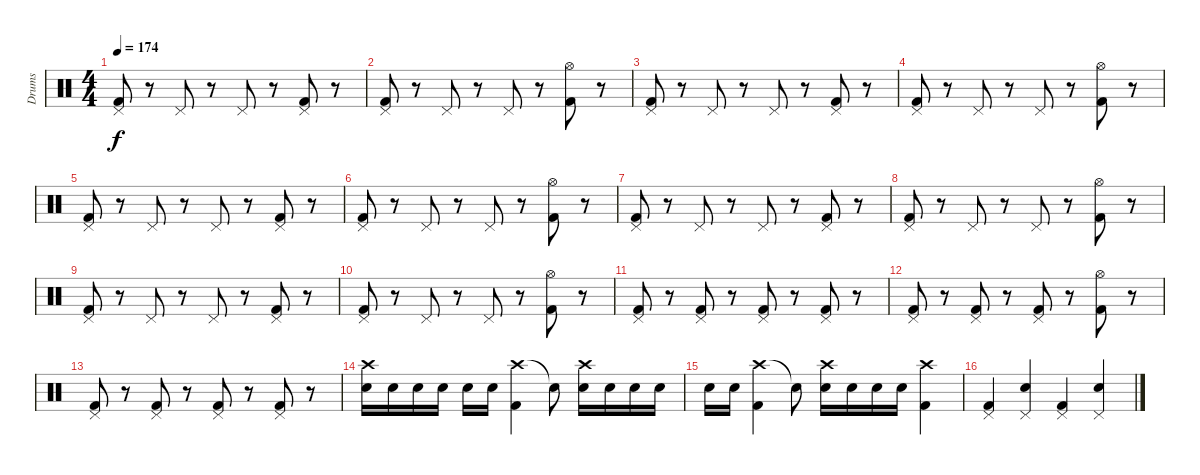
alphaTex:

\track ("Drums" "Drums") {instrument percussion}
\staff {score}
\articulation defaults
\ts (4 4)
\tempo 174
\clef neutral
\ks c
("Pedal Hi-Hat (hit)" "Kick (hit) 2").8{dy f} r.8 "Pedal Hi-Hat (hit)".8 r.8 "Pedal Hi-Hat (hit)".8 r.8 ("Pedal Hi-Hat (hit)" "Kick (hit) 2").8 r.8 |
("Pedal Hi-Hat (hit)" "Kick (hit) 2").8 r.8 "Pedal Hi-Hat (hit)".8 r.8 "Pedal Hi-Hat (hit)".8 r.8 ("Hi-Hat (open)" "Kick (hit) 2").8 r.8 |
("Pedal Hi-Hat (hit)" "Kick (hit) 2").8 r.8 "Pedal Hi-Hat (hit)".8 r.8 "Pedal Hi-Hat (hit)".8 r.8 ("Pedal Hi-Hat (hit)" "Kick (hit) 2").8 r.8 |
("Pedal Hi-Hat (hit)" "Kick (hit) 2").8 r.8 "Pedal Hi-Hat (hit)".8 r.8 "Pedal Hi-Hat (hit)".8 r.8 ("Hi-Hat (open)" "Kick (hit) 2").8 r.8 |
("Pedal Hi-Hat (hit)" "Kick (hit) 2").8 r.8 "Pedal Hi-Hat (hit)".8 r.8 "Pedal Hi-Hat (hit)".8 r.8 ("Pedal Hi-Hat (hit)" "Kick (hit) 2").8 r.8 |
("Pedal Hi-Hat (hit)" "Kick (hit) 2").8 r.8 "Pedal Hi-Hat (hit)".8 r.8 "Pedal Hi-Hat (hit)".8 r.8 ("Hi-Hat (open)" "Kick (hit) 2").8 r.8 |
("Pedal Hi-Hat (hit)" "Kick (hit) 2").8 r.8 "Pedal Hi-Hat (hit)".8 r.8 "Pedal Hi-Hat (hit)".8 r.8 ("Pedal Hi-Hat (hit)" "Kick (hit) 2").8 r.8 |
("Pedal Hi-Hat (hit)" "Kick (hit) 2").8 r.8 "Pedal Hi-Hat (hit)".8 r.8 "Pedal Hi-Hat (hit)".8 r.8 ("Hi-Hat (open)" "Kick (hit) 2").8 r.8 |
("Pedal Hi-Hat (hit)" "Kick (hit) 2").8 r.8 "Pedal Hi-Hat (hit)".8 r.8 "Pedal Hi-Hat (hit)".8 r.8 ("Pedal Hi-Hat (hit)" "Kick (hit) 2").8 r.8 |
("Pedal Hi-Hat (hit)" "Kick (hit) 2").8 r.8 "Pedal Hi-Hat (hit)".8 r.8 "Pedal Hi-Hat (hit)".8 r.8 ("Hi-Hat (open)" "Kick (hit) 2").8 r.8 |
("Pedal Hi-Hat (hit)" "Kick (hit) 2").8 r.8 ("Pedal Hi-Hat (hit)" "Kick (hit) 2").8 r.8 ("Pedal Hi-Hat (hit)" "Kick (hit) 2").8 r.8 ("Pedal Hi-Hat (hit)" "Kick (hit) 2").8 r.8 |
("Pedal Hi-Hat (hit)" "Kick (hit) 2").8 r.8 ("Pedal Hi-Hat (hit)" "Kick (hit) 2").8 r.8 ("Pedal Hi-Hat (hit)" "Kick (hit) 2").8 r.8 ("Hi-Hat (open)" "Kick (hit) 2").8 r.8 |
("Pedal Hi-Hat (hit)" "Kick (hit) 2").8 r.8 ("Pedal Hi-Hat (hit)" "Kick (hit) 2").8 r.8 ("Pedal Hi-Hat (hit)" "Kick (hit) 2").8 r.8 ("Pedal Hi-Hat (hit)" "Kick (hit) 2").8 r.8 |
("Crash high (hit)" "Snare (hit) 2").16 "Snare (hit) 2".16 "Snare (hit) 2".16 "Snare (hit) 2".16 "Snare (hit) 2".16 "Snare (hit) 2".16 ("Crash high (hit)" "Kick (hit) 2").4 "Snare (hit)"{t}.8 ("Crash high (hit)" "Snare (hit) 2").16 "Snare (hit) 2".16 "Snare (hit) 2".16 "Snare (hit) 2".16 |
"Snare (hit) 2".16 "Snare (hit) 2".16 ("Crash high (hit)" "Kick (hit) 2").4 "Snare (hit)"{t}.8 ("Crash high (hit)" "Snare (hit) 2").16 "Snare (hit) 2".16 "Snare (hit) 2".16 "Snare (hit) 2".16 ("Crash high (hit)" "Kick (hit) 2").4 |
("Pedal Hi-Hat (hit)" "Kick (hit) 2").4{volume 13} ("Pedal Hi-Hat (hit)" "Snare (hit) 2").4 ("Pedal Hi-Hat (hit)" "Kick (hit) 2").4 ("Pedal Hi-Hat (hit)" "Snare (hit) 2").4
